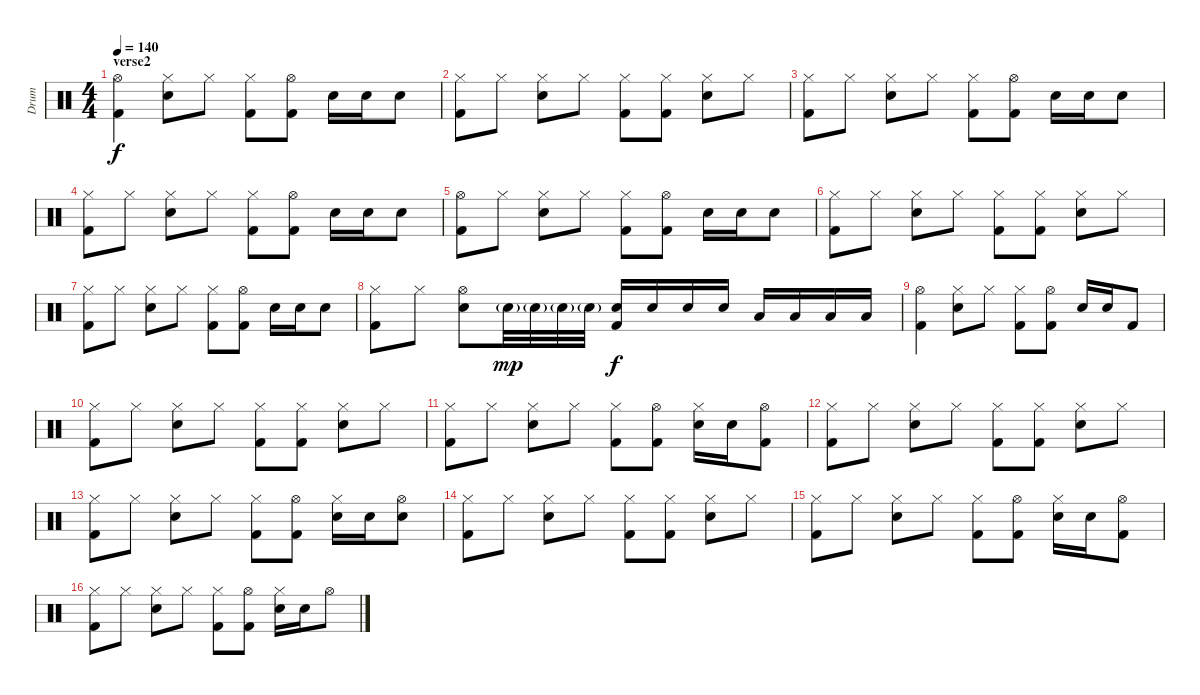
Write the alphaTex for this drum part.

\track ("Drum" "Drum") {instrument percussion}
\staff {score}
\articulation defaults
\ts (4 4)
\section ("" "verse2")
\tempo 140
\clef neutral
\ks c
("Hi-Hat (open)" "Kick (hit) 2").4{dy f} ("Hi-Hat (closed)" "Electric Snare (hit)").8 "Hi-Hat (closed)".8 ("Hi-Hat (closed)" "Kick (hit) 2").8 ("Hi-Hat (open)" "Kick (hit) 2").8 "Electric Snare (hit)".16 "Electric Snare (hit)".16 "Electric Snare (hit)".8 |
("Hi-Hat (closed)" "Kick (hit) 2").8 "Hi-Hat (closed)".8 ("Hi-Hat (closed)" "Electric Snare (hit)").8 "Hi-Hat (closed)".8 ("Hi-Hat (closed)" "Kick (hit) 2").8 ("Hi-Hat (closed)" "Kick (hit) 2").8 ("Hi-Hat (closed)" "Electric Snare (hit)").8 "Hi-Hat (closed)".8 |
("Hi-Hat (closed)" "Kick (hit) 2").8 "Hi-Hat (closed)".8 ("Hi-Hat (closed)" "Electric Snare (hit)").8 "Hi-Hat (closed)".8 ("Hi-Hat (closed)" "Kick (hit) 2").8 ("Hi-Hat (open)" "Kick (hit) 2").8 "Electric Snare (hit)".16 "Electric Snare (hit)".16 "Electric Snare (hit)".8 |
("Hi-Hat (closed)" "Kick (hit) 2").8 "Hi-Hat (closed)".8 ("Hi-Hat (closed)" "Electric Snare (hit)").8 "Hi-Hat (closed)".8 ("Hi-Hat (closed)" "Kick (hit) 2").8 ("Hi-Hat (open)" "Kick (hit) 2").8 "Electric Snare (hit)".16 "Electric Snare (hit)".16 "Electric Snare (hit)".8 |
("Hi-Hat (open)" "Kick (hit) 2").8 "Hi-Hat (closed)".8 ("Hi-Hat (closed)" "Electric Snare (hit)").8 "Hi-Hat (closed)".8 ("Hi-Hat (closed)" "Kick (hit) 2").8 ("Hi-Hat (open)" "Kick (hit) 2").8 "Electric Snare (hit)".16 "Electric Snare (hit)".16 "Electric Snare (hit)".8 |
("Hi-Hat (closed)" "Kick (hit) 2").8 "Hi-Hat (closed)".8 ("Hi-Hat (closed)" "Electric Snare (hit)").8 "Hi-Hat (closed)".8 ("Hi-Hat (closed)" "Kick (hit) 2").8 ("Hi-Hat (closed)" "Kick (hit) 2").8 ("Hi-Hat (closed)" "Electric Snare (hit)").8 "Hi-Hat (closed)".8 |
("Hi-Hat (closed)" "Kick (hit) 2").8 "Hi-Hat (closed)".8 ("Hi-Hat (closed)" "Electric Snare (hit)").8 "Hi-Hat (closed)".8 ("Hi-Hat (closed)" "Kick (hit) 2").8 ("Hi-Hat (open)" "Kick (hit) 2").8 "Electric Snare (hit)".16 "Electric Snare (hit)".16 "Electric Snare (hit)".8 |
("Hi-Hat (closed)" "Kick (hit) 2").8 "Hi-Hat (closed)".8 ("Hi-Hat (open)" "Electric Snare (hit)").8 "Electric Snare (hit)"{g}.32{dy mp} "Electric Snare (hit)"{g}.32 "Electric Snare (hit)"{g}.32 "Electric Snare (hit)"{g}.32 ("Electric Snare (hit)" "Kick (hit) 2").16{dy f} "Electric Snare (hit)".16 "Electric Snare (hit)".16 "Electric Snare (hit)".16 "Low Tom (hit)".16 "Low Tom (hit)".16 "Low Tom (hit)".16 "Low Tom (hit)".16 |
("Hi-Hat (open)" "Kick (hit) 2").4 ("Hi-Hat (closed)" "Electric Snare (hit)").8 "Hi-Hat (closed)".8 ("Hi-Hat (closed)" "Kick (hit) 2").8 ("Hi-Hat (open)" "Kick (hit) 2").8 "Electric Snare (hit)".16 "Electric Snare (hit)".16 "Kick (hit) 2".8 |
("Hi-Hat (closed)" "Kick (hit) 2").8 "Hi-Hat (closed)".8 ("Hi-Hat (closed)" "Electric Snare (hit)").8 "Hi-Hat (closed)".8 ("Hi-Hat (closed)" "Kick (hit) 2").8 ("Hi-Hat (closed)" "Kick (hit) 2").8 ("Hi-Hat (closed)" "Electric Snare (hit)").8 "Hi-Hat (closed)".8 |
("Hi-Hat (closed)" "Kick (hit) 2").8 "Hi-Hat (closed)".8 ("Hi-Hat (closed)" "Electric Snare (hit)").8 "Hi-Hat (closed)".8 ("Hi-Hat (closed)" "Kick (hit) 2").8 ("Hi-Hat (open)" "Kick (hit) 2").8 ("Hi-Hat (closed)" "Electric Snare (hit)").16 "Electric Snare (hit)".16 ("Hi-Hat (open)" "Kick (hit) 2").8 |
("Hi-Hat (closed)" "Kick (hit) 2").8 "Hi-Hat (closed)".8 ("Hi-Hat (closed)" "Electric Snare (hit)").8 "Hi-Hat (closed)".8 ("Hi-Hat (closed)" "Kick (hit) 2").8 ("Hi-Hat (closed)" "Kick (hit) 2").8 ("Hi-Hat (closed)" "Electric Snare (hit)").8 "Hi-Hat (closed)".8 |
("Hi-Hat (closed)" "Kick (hit) 2").8 "Hi-Hat (closed)".8 ("Hi-Hat (closed)" "Electric Snare (hit)").8 "Hi-Hat (closed)".8 ("Hi-Hat (closed)" "Kick (hit) 2").8 ("Hi-Hat (open)" "Kick (hit) 2").8 ("Hi-Hat (closed)" "Electric Snare (hit)").16 "Electric Snare (hit)".16 ("Hi-Hat (open)" "Electric Snare (hit)").8 |
("Hi-Hat (closed)" "Kick (hit) 2").8 "Hi-Hat (closed)".8 ("Hi-Hat (closed)" "Electric Snare (hit)").8 "Hi-Hat (closed)".8 ("Hi-Hat (closed)" "Kick (hit) 2").8 ("Hi-Hat (closed)" "Kick (hit) 2").8 ("Hi-Hat (closed)" "Electric Snare (hit)").8 "Hi-Hat (closed)".8 |
("Hi-Hat (closed)" "Kick (hit) 2").8 "Hi-Hat (closed)".8 ("Hi-Hat (closed)" "Electric Snare (hit)").8 "Hi-Hat (closed)".8 ("Hi-Hat (closed)" "Kick (hit) 2").8 ("Hi-Hat (open)" "Kick (hit) 2").8 ("Hi-Hat (closed)" "Electric Snare (hit)").16 "Electric Snare (hit)".16 ("Hi-Hat (open)" "Kick (hit) 2").8 |
("Hi-Hat (closed)" "Kick (hit) 2").8 "Hi-Hat (closed)".8 ("Hi-Hat (closed)" "Electric Snare (hit)").8 "Hi-Hat (closed)".8 ("Hi-Hat (closed)" "Kick (hit) 2").8 ("Hi-Hat (open)" "Kick (hit) 2").8 ("Hi-Hat (closed)" "Electric Snare (hit)").16 "Electric Snare (hit)".16 "Hi-Hat (open)".8
